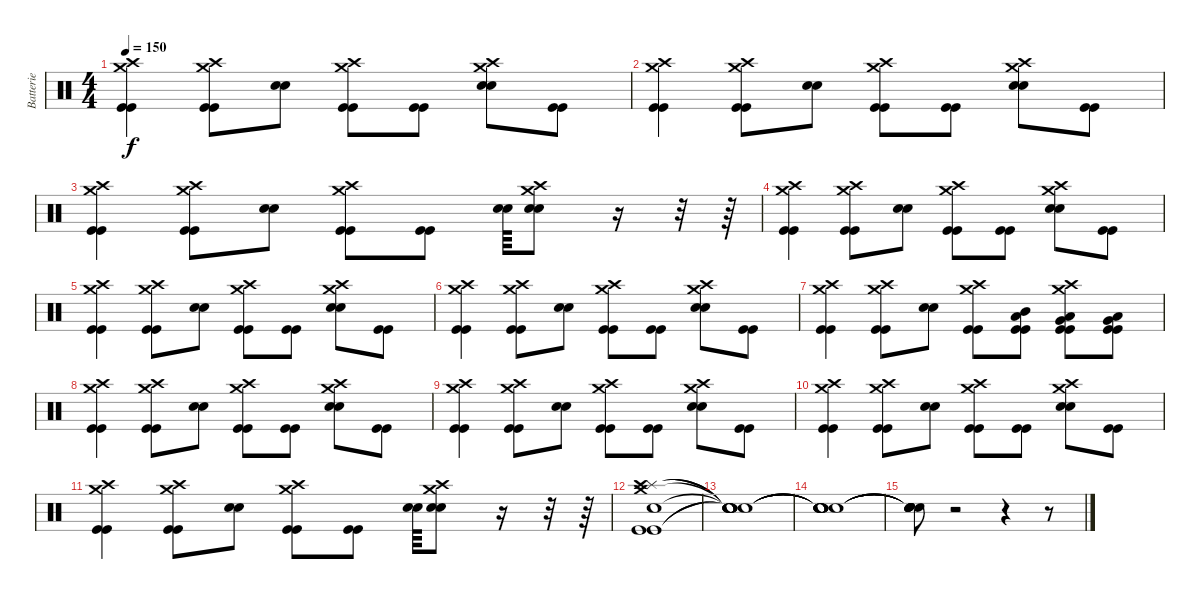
\track ("Batterie" "Batterie") {instrument percussion}
\staff {score}
\articulation defaults
\ts (4 4)
\tempo 150
\clef neutral
\ks c
("Crash high (hit)" "Crash medium (hit)" "Kick (hit)" "Kick (hit)").4{dy f} ("Crash high (hit)" "Crash medium (hit)" "Kick (hit)" "Kick (hit)").8 ("Electric Snare (hit)" "Electric Snare (hit)").8 ("Crash high (hit)" "Crash medium (hit)" "Kick (hit)" "Kick (hit)").8 ("Kick (hit)" "Kick (hit)").8 ("Crash high (hit)" "Crash medium (hit)" "Electric Snare (hit)" "Electric Snare (hit)").8 ("Kick (hit)" "Kick (hit)").8 |
("Crash high (hit)" "Crash medium (hit)" "Kick (hit)" "Kick (hit)").4 ("Crash high (hit)" "Crash medium (hit)" "Kick (hit)" "Kick (hit)").8 ("Electric Snare (hit)" "Electric Snare (hit)").8 ("Crash high (hit)" "Crash medium (hit)" "Kick (hit)" "Kick (hit)").8 ("Kick (hit)" "Kick (hit)").8 ("Crash high (hit)" "Crash medium (hit)" "Electric Snare (hit)" "Electric Snare (hit)").8 ("Kick (hit)" "Kick (hit)").8 |
("Crash high (hit)" "Crash medium (hit)" "Kick (hit)" "Kick (hit)").4 ("Crash high (hit)" "Crash medium (hit)" "Kick (hit)" "Kick (hit)").8 ("Electric Snare (hit)" "Electric Snare (hit)").8 ("Crash high (hit)" "Crash medium (hit)" "Kick (hit)" "Kick (hit)").8 ("Kick (hit)" "Kick (hit)").8 ("Electric Snare (hit)" "Electric Snare (hit)").64 ("Crash high (hit)" "Crash medium (hit)" "Electric Snare (hit)" "Electric Snare (hit)").8 r.16 r.32 r.64 |
("Crash high (hit)" "Crash medium (hit)" "Kick (hit)" "Kick (hit)").4 ("Crash high (hit)" "Crash medium (hit)" "Kick (hit)" "Kick (hit)").8 ("Electric Snare (hit)" "Electric Snare (hit)").8 ("Crash high (hit)" "Crash medium (hit)" "Kick (hit)" "Kick (hit)").8 ("Kick (hit)" "Kick (hit)").8 ("Crash high (hit)" "Crash medium (hit)" "Electric Snare (hit)" "Electric Snare (hit)").8 ("Kick (hit)" "Kick (hit)").8 |
("Crash high (hit)" "Crash medium (hit)" "Kick (hit)" "Kick (hit)").4 ("Crash high (hit)" "Crash medium (hit)" "Kick (hit)" "Kick (hit)").8 ("Electric Snare (hit)" "Electric Snare (hit)").8 ("Crash high (hit)" "Crash medium (hit)" "Kick (hit)" "Kick (hit)").8 ("Kick (hit)" "Kick (hit)").8 ("Crash high (hit)" "Crash medium (hit)" "Electric Snare (hit)" "Electric Snare (hit)").8 ("Kick (hit)" "Kick (hit)").8 |
("Crash high (hit)" "Crash medium (hit)" "Kick (hit)" "Kick (hit)").4 ("Crash high (hit)" "Crash medium (hit)" "Kick (hit)" "Kick (hit)").8 ("Electric Snare (hit)" "Electric Snare (hit)").8 ("Crash high (hit)" "Crash medium (hit)" "Kick (hit)" "Kick (hit)").8 ("Kick (hit)" "Kick (hit)").8 ("Crash high (hit)" "Crash medium (hit)" "Electric Snare (hit)" "Electric Snare (hit)").8 ("Kick (hit)" "Kick (hit)").8 |
("Crash high (hit)" "Crash medium (hit)" "Kick (hit)" "Kick (hit)").4 ("Crash high (hit)" "Crash medium (hit)" "Kick (hit)" "Kick (hit)").8 ("Electric Snare (hit)" "Electric Snare (hit)").8 ("Crash high (hit)" "Crash medium (hit)" "Kick (hit)" "Kick (hit)").8 ("Mid Tom (hit)" "Low Floor Tom (hit)" "Kick (hit)" "Kick (hit)").8 ("Crash high (hit)" "Crash medium (hit)" "Very Low Tom (hit)" "Low Floor Tom (hit)" "Kick (hit)" "Kick (hit)").8 ("Very Low Tom (hit)" "Low Floor Tom (hit)" "Kick (hit)" "Kick (hit)").8 |
("Crash high (hit)" "Crash medium (hit)" "Kick (hit)" "Kick (hit)").4 ("Crash high (hit)" "Crash medium (hit)" "Kick (hit)" "Kick (hit)").8 ("Electric Snare (hit)" "Electric Snare (hit)").8 ("Crash high (hit)" "Crash medium (hit)" "Kick (hit)" "Kick (hit)").8 ("Kick (hit)" "Kick (hit)").8 ("Crash high (hit)" "Crash medium (hit)" "Electric Snare (hit)" "Electric Snare (hit)").8 ("Kick (hit)" "Kick (hit)").8 |
("Crash high (hit)" "Crash medium (hit)" "Kick (hit)" "Kick (hit)").4 ("Crash high (hit)" "Crash medium (hit)" "Kick (hit)" "Kick (hit)").8 ("Electric Snare (hit)" "Electric Snare (hit)").8 ("Crash high (hit)" "Crash medium (hit)" "Kick (hit)" "Kick (hit)").8 ("Kick (hit)" "Kick (hit)").8 ("Crash high (hit)" "Crash medium (hit)" "Electric Snare (hit)" "Electric Snare (hit)").8 ("Kick (hit)" "Kick (hit)").8 |
("Crash high (hit)" "Crash medium (hit)" "Kick (hit)" "Kick (hit)").4 ("Crash high (hit)" "Crash medium (hit)" "Kick (hit)" "Kick (hit)").8 ("Electric Snare (hit)" "Electric Snare (hit)").8 ("Crash high (hit)" "Crash medium (hit)" "Kick (hit)" "Kick (hit)").8 ("Kick (hit)" "Kick (hit)").8 ("Crash high (hit)" "Crash medium (hit)" "Electric Snare (hit)" "Electric Snare (hit)").8 ("Kick (hit)" "Kick (hit)").8 |
("Crash high (hit)" "Crash medium (hit)" "Kick (hit)" "Kick (hit)").4 ("Crash high (hit)" "Crash medium (hit)" "Kick (hit)" "Kick (hit)").8 ("Electric Snare (hit)" "Electric Snare (hit)").8 ("Crash high (hit)" "Crash medium (hit)" "Kick (hit)" "Kick (hit)").8 ("Kick (hit)" "Kick (hit)").8 ("Electric Snare (hit)" "Electric Snare (hit)").64 ("Crash high (hit)" "Crash medium (hit)" "Electric Snare (hit)" "Electric Snare (hit)").8 r.16 r.32 r.64 |
("Splash (hit)" "Crash medium (hit)" "Crash high (hit)" "Electric Snare (hit)" "Kick (hit)" "Kick (hit)").1 |
("Snare (hit)"{t} "Snare (hit)"{t} "Snare (hit)"{t} "Snare (hit)"{t} "Snare (hit)"{t} "Snare (hit)"{t}).1 |
("Snare (hit)"{t} "Snare (hit)"{t} "Snare (hit)"{t} "Snare (hit)"{t} "Snare (hit)"{t} "Snare (hit)"{t}).1 |
("Snare (hit)"{t} "Snare (hit)"{t} "Snare (hit)"{t} "Snare (hit)"{t} "Snare (hit)"{t} "Snare (hit)"{t}).8 r.2 r.4 r.8
